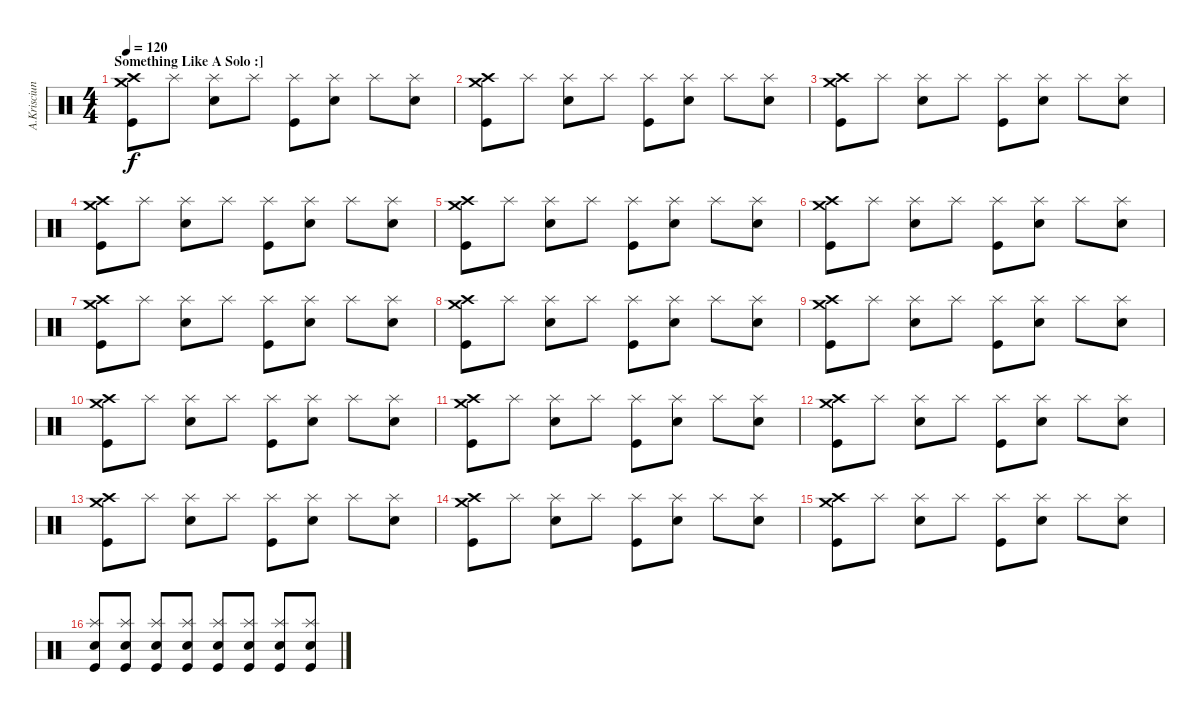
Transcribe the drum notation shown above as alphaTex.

\track ("A.Krisciunas" "A.Krisciun") {instrument percussion}
\staff {score}
\articulation defaults
\ts (4 4)
\section ("" "Something Like A Solo :]")
\tempo 120
\clef neutral
\ks c
("Crash medium (hit)" "Crash high (hit)" "Kick (hit)").8{dy f} "Splash (hit)".8 ("Splash (hit)" "Electric Snare (hit)").8 "Splash (hit)".8 ("Splash (hit)" "Kick (hit)").8 ("Splash (hit)" "Electric Snare (hit)").8 "Splash (hit)".8 ("Splash (hit)" "Electric Snare (hit)").8 |
("Crash medium (hit)" "Crash high (hit)" "Kick (hit)").8 "Splash (hit)".8 ("Splash (hit)" "Electric Snare (hit)").8 "Splash (hit)".8 ("Splash (hit)" "Kick (hit)").8 ("Splash (hit)" "Electric Snare (hit)").8 "Splash (hit)".8 ("Splash (hit)" "Electric Snare (hit)").8 |
("Crash medium (hit)" "Crash high (hit)" "Kick (hit)").8 "Splash (hit)".8 ("Splash (hit)" "Electric Snare (hit)").8 "Splash (hit)".8 ("Splash (hit)" "Kick (hit)").8 ("Splash (hit)" "Electric Snare (hit)").8 "Splash (hit)".8 ("Splash (hit)" "Electric Snare (hit)").8 |
("Crash medium (hit)" "Crash high (hit)" "Kick (hit)").8 "Splash (hit)".8 ("Splash (hit)" "Electric Snare (hit)").8 "Splash (hit)".8 ("Splash (hit)" "Kick (hit)").8 ("Splash (hit)" "Electric Snare (hit)").8 "Splash (hit)".8 ("Splash (hit)" "Electric Snare (hit)").8 |
("Crash medium (hit)" "Crash high (hit)" "Kick (hit)").8 "Splash (hit)".8 ("Splash (hit)" "Electric Snare (hit)").8 "Splash (hit)".8 ("Splash (hit)" "Kick (hit)").8 ("Splash (hit)" "Electric Snare (hit)").8 "Splash (hit)".8 ("Splash (hit)" "Electric Snare (hit)").8 |
("Crash medium (hit)" "Crash high (hit)" "Kick (hit)").8 "Splash (hit)".8 ("Splash (hit)" "Electric Snare (hit)").8 "Splash (hit)".8 ("Splash (hit)" "Kick (hit)").8 ("Splash (hit)" "Electric Snare (hit)").8 "Splash (hit)".8 ("Splash (hit)" "Electric Snare (hit)").8 |
("Crash medium (hit)" "Crash high (hit)" "Kick (hit)").8 "Splash (hit)".8 ("Splash (hit)" "Electric Snare (hit)").8 "Splash (hit)".8 ("Splash (hit)" "Kick (hit)").8 ("Splash (hit)" "Electric Snare (hit)").8 "Splash (hit)".8 ("Splash (hit)" "Electric Snare (hit)").8 |
("Crash medium (hit)" "Crash high (hit)" "Kick (hit)").8 "Splash (hit)".8 ("Splash (hit)" "Electric Snare (hit)").8 "Splash (hit)".8 ("Splash (hit)" "Kick (hit)").8 ("Splash (hit)" "Electric Snare (hit)").8 "Splash (hit)".8 ("Splash (hit)" "Electric Snare (hit)").8 |
("Crash medium (hit)" "Crash high (hit)" "Kick (hit)").8 "Splash (hit)".8 ("Splash (hit)" "Electric Snare (hit)").8 "Splash (hit)".8 ("Splash (hit)" "Kick (hit)").8 ("Splash (hit)" "Electric Snare (hit)").8 "Splash (hit)".8 ("Splash (hit)" "Electric Snare (hit)").8 |
("Crash medium (hit)" "Crash high (hit)" "Kick (hit)").8 "Splash (hit)".8 ("Splash (hit)" "Electric Snare (hit)").8 "Splash (hit)".8 ("Splash (hit)" "Kick (hit)").8 ("Splash (hit)" "Electric Snare (hit)").8 "Splash (hit)".8 ("Splash (hit)" "Electric Snare (hit)").8 |
("Crash medium (hit)" "Crash high (hit)" "Kick (hit)").8 "Splash (hit)".8 ("Splash (hit)" "Electric Snare (hit)").8 "Splash (hit)".8 ("Splash (hit)" "Kick (hit)").8 ("Splash (hit)" "Electric Snare (hit)").8 "Splash (hit)".8 ("Splash (hit)" "Electric Snare (hit)").8 |
("Crash medium (hit)" "Crash high (hit)" "Kick (hit)").8 "Splash (hit)".8 ("Splash (hit)" "Electric Snare (hit)").8 "Splash (hit)".8 ("Splash (hit)" "Kick (hit)").8 ("Splash (hit)" "Electric Snare (hit)").8 "Splash (hit)".8 ("Splash (hit)" "Electric Snare (hit)").8 |
("Crash medium (hit)" "Crash high (hit)" "Kick (hit)").8 "Splash (hit)".8 ("Splash (hit)" "Electric Snare (hit)").8 "Splash (hit)".8 ("Splash (hit)" "Kick (hit)").8 ("Splash (hit)" "Electric Snare (hit)").8 "Splash (hit)".8 ("Splash (hit)" "Electric Snare (hit)").8 |
("Crash medium (hit)" "Crash high (hit)" "Kick (hit)").8 "Splash (hit)".8 ("Splash (hit)" "Electric Snare (hit)").8 "Splash (hit)".8 ("Splash (hit)" "Kick (hit)").8 ("Splash (hit)" "Electric Snare (hit)").8 "Splash (hit)".8 ("Splash (hit)" "Electric Snare (hit)").8 |
("Crash medium (hit)" "Crash high (hit)" "Kick (hit)").8 "Splash (hit)".8 ("Splash (hit)" "Electric Snare (hit)").8 "Splash (hit)".8 ("Splash (hit)" "Kick (hit)").8 ("Splash (hit)" "Electric Snare (hit)").8 "Splash (hit)".8 ("Splash (hit)" "Electric Snare (hit)").8 |
("Splash (hit)" "Electric Snare (hit)" "Kick (hit)").8 ("Splash (hit)" "Electric Snare (hit)" "Kick (hit)").8 ("Splash (hit)" "Electric Snare (hit)" "Kick (hit)").8 ("Splash (hit)" "Electric Snare (hit)" "Kick (hit)").8 ("Splash (hit)" "Electric Snare (hit)" "Kick (hit)").8 ("Splash (hit)" "Electric Snare (hit)" "Kick (hit)").8 ("Splash (hit)" "Electric Snare (hit)" "Kick (hit)").8 ("Splash (hit)" "Electric Snare (hit)" "Kick (hit)").8
